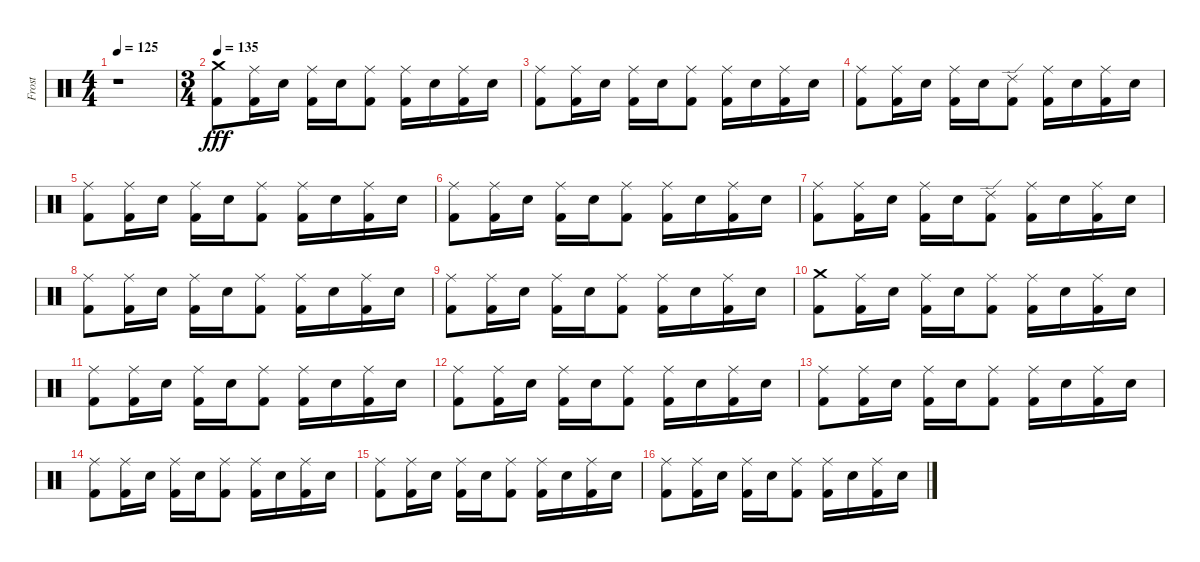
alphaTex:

\track ("Frost" "Frost") {instrument percussion}
\staff {score}
\articulation defaults
\ts (4 4)
\tempo 125
\clef neutral
\ks c
r.1{dy fff} |
\ts (3 4)
\tempo 135
("Crash medium (hit)" "Kick (hit) 2").8 ("Ride (middle)" "Kick (hit) 2").16 "Electric Snare (hit)".16 ("Ride (middle)" "Kick (hit) 2").16 "Electric Snare (hit)".16 ("Ride (middle)" "Kick (hit) 2").8 ("Ride (middle)" "Kick (hit) 2").16 "Electric Snare (hit)".16 ("Ride (middle)" "Kick (hit) 2").16 "Electric Snare (hit)".16 |
("Ride (middle)" "Kick (hit) 2").8 ("Ride (middle)" "Kick (hit) 2").16 "Electric Snare (hit)".16 ("Ride (middle)" "Kick (hit) 2").16 "Electric Snare (hit)".16 ("Ride (middle)" "Kick (hit) 2").8 ("Ride (middle)" "Kick (hit) 2").16 "Electric Snare (hit)".16 ("Ride (middle)" "Kick (hit) 2").16 "Electric Snare (hit)".16 |
("Ride (middle)" "Kick (hit) 2").8 ("Ride (middle)" "Kick (hit) 2").16 "Electric Snare (hit)".16 ("Ride (middle)" "Kick (hit) 2").16 "Electric Snare (hit)".16 ("Ride (edge) 2" "Kick (hit) 2").8 ("Ride (middle)" "Kick (hit) 2").16 "Electric Snare (hit)".16 ("Ride (middle)" "Kick (hit) 2").16 "Electric Snare (hit)".16 |
("Ride (middle)" "Kick (hit) 2").8 ("Ride (middle)" "Kick (hit) 2").16 "Electric Snare (hit)".16 ("Ride (middle)" "Kick (hit) 2").16 "Electric Snare (hit)".16 ("Ride (middle)" "Kick (hit) 2").8 ("Ride (middle)" "Kick (hit) 2").16 "Electric Snare (hit)".16 ("Ride (middle)" "Kick (hit) 2").16 "Electric Snare (hit)".16 |
("Ride (middle)" "Kick (hit) 2").8 ("Ride (middle)" "Kick (hit) 2").16 "Electric Snare (hit)".16 ("Ride (middle)" "Kick (hit) 2").16 "Electric Snare (hit)".16 ("Ride (middle)" "Kick (hit) 2").8 ("Ride (middle)" "Kick (hit) 2").16 "Electric Snare (hit)".16 ("Ride (middle)" "Kick (hit) 2").16 "Electric Snare (hit)".16 |
("Ride (middle)" "Kick (hit) 2").8 ("Ride (middle)" "Kick (hit) 2").16 "Electric Snare (hit)".16 ("Ride (middle)" "Kick (hit) 2").16 "Electric Snare (hit)".16 ("Ride (edge) 2" "Kick (hit) 2").8 ("Ride (middle)" "Kick (hit) 2").16 "Electric Snare (hit)".16 ("Ride (middle)" "Kick (hit) 2").16 "Electric Snare (hit)".16 |
("Ride (middle)" "Kick (hit) 2").8 ("Ride (middle)" "Kick (hit) 2").16 "Electric Snare (hit)".16 ("Ride (middle)" "Kick (hit) 2").16 "Electric Snare (hit)".16 ("Ride (middle)" "Kick (hit) 2").8 ("Ride (middle)" "Kick (hit) 2").16 "Electric Snare (hit)".16 ("Ride (middle)" "Kick (hit) 2").16 "Electric Snare (hit)".16 |
("Ride (middle)" "Kick (hit) 2").8 ("Ride (middle)" "Kick (hit) 2").16 "Electric Snare (hit)".16 ("Ride (middle)" "Kick (hit) 2").16 "Electric Snare (hit)".16 ("Ride (middle)" "Kick (hit) 2").8 ("Ride (middle)" "Kick (hit) 2").16 "Electric Snare (hit)".16 ("Ride (middle)" "Kick (hit) 2").16 "Electric Snare (hit)".16 |
("Crash medium (hit)" "Kick (hit) 2").8 ("Ride (middle)" "Kick (hit) 2").16 "Electric Snare (hit)".16 ("Ride (middle)" "Kick (hit) 2").16 "Electric Snare (hit)".16 ("Ride (middle)" "Kick (hit) 2").8 ("Ride (middle)" "Kick (hit) 2").16 "Electric Snare (hit)".16 ("Ride (middle)" "Kick (hit) 2").16 "Electric Snare (hit)".16 |
("Ride (middle)" "Kick (hit) 2").8 ("Ride (middle)" "Kick (hit) 2").16 "Electric Snare (hit)".16 ("Ride (middle)" "Kick (hit) 2").16 "Electric Snare (hit)".16 ("Ride (middle)" "Kick (hit) 2").8 ("Ride (middle)" "Kick (hit) 2").16 "Electric Snare (hit)".16 ("Ride (middle)" "Kick (hit) 2").16 "Electric Snare (hit)".16 |
("Ride (middle)" "Kick (hit) 2").8 ("Ride (middle)" "Kick (hit) 2").16 "Electric Snare (hit)".16 ("Ride (middle)" "Kick (hit) 2").16 "Electric Snare (hit)".16 ("Ride (middle)" "Kick (hit) 2").8 ("Ride (middle)" "Kick (hit) 2").16 "Electric Snare (hit)".16 ("Ride (middle)" "Kick (hit) 2").16 "Electric Snare (hit)".16 |
("Ride (middle)" "Kick (hit) 2").8 ("Ride (middle)" "Kick (hit) 2").16 "Electric Snare (hit)".16 ("Ride (middle)" "Kick (hit) 2").16 "Electric Snare (hit)".16 ("Ride (middle)" "Kick (hit) 2").8 ("Ride (middle)" "Kick (hit) 2").16 "Electric Snare (hit)".16 ("Ride (middle)" "Kick (hit) 2").16 "Electric Snare (hit)".16 |
("Ride (middle)" "Kick (hit) 2").8 ("Ride (middle)" "Kick (hit) 2").16 "Electric Snare (hit)".16 ("Ride (middle)" "Kick (hit) 2").16 "Electric Snare (hit)".16 ("Ride (middle)" "Kick (hit) 2").8 ("Ride (middle)" "Kick (hit) 2").16 "Electric Snare (hit)".16 ("Ride (middle)" "Kick (hit) 2").16 "Electric Snare (hit)".16 |
("Ride (middle)" "Kick (hit) 2").8 ("Ride (middle)" "Kick (hit) 2").16 "Electric Snare (hit)".16 ("Ride (middle)" "Kick (hit) 2").16 "Electric Snare (hit)".16 ("Ride (middle)" "Kick (hit) 2").8 ("Ride (middle)" "Kick (hit) 2").16 "Electric Snare (hit)".16 ("Ride (middle)" "Kick (hit) 2").16 "Electric Snare (hit)".16 |
("Ride (middle)" "Kick (hit) 2").8 ("Ride (middle)" "Kick (hit) 2").16 "Electric Snare (hit)".16 ("Ride (middle)" "Kick (hit) 2").16 "Electric Snare (hit)".16 ("Ride (middle)" "Kick (hit) 2").8 ("Ride (middle)" "Kick (hit) 2").16 "Electric Snare (hit)".16 ("Ride (middle)" "Kick (hit) 2").16 "Electric Snare (hit)".16
